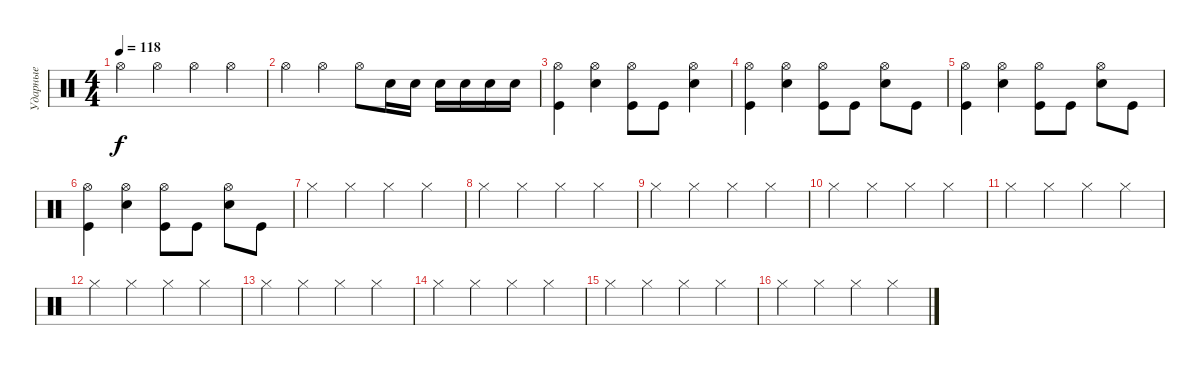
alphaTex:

\track ("Ударные" "Ударные") {instrument percussion}
\staff {score}
\articulation defaults
\ts (4 4)
\tempo 118
\clef neutral
\ks c "Hi-Hat (open)".4{dy f} "Hi-Hat (open)".4 "Hi-Hat (open)".4 "Hi-Hat (open)".4
|
"Hi-Hat (open)".4 "Hi-Hat (open)".4 "Hi-Hat (open)".8 "Snare (hit) 2".16 "Snare (hit) 2".16 "Snare (hit) 2".16 "Snare (hit) 2".16 "Snare (hit) 2".16 "Snare (hit) 2".16 |
("Hi-Hat (open)" "Kick (hit)").4 ("Hi-Hat (open)" "Snare (hit) 2").4 ("Hi-Hat (open)" "Kick (hit)").8 "Kick (hit)".8 ("Hi-Hat (open)" "Snare (hit) 2").4 |
("Hi-Hat (open)" "Kick (hit)").4 ("Hi-Hat (open)" "Snare (hit) 2").4 ("Hi-Hat (open)" "Kick (hit)").8 "Kick (hit)".8 ("Hi-Hat (open)" "Snare (hit) 2").8 "Kick (hit)".8 |
("Hi-Hat (open)" "Kick (hit)").4 ("Hi-Hat (open)" "Snare (hit) 2").4 ("Hi-Hat (open)" "Kick (hit)").8 "Kick (hit)".8 ("Hi-Hat (open)" "Snare (hit) 2").8 "Kick (hit)".8 |
("Hi-Hat (open)" "Kick (hit)").4 ("Hi-Hat (open)" "Snare (hit) 2").4 ("Hi-Hat (open)" "Kick (hit)").8 "Kick (hit)".8 ("Hi-Hat (open)" "Snare (hit) 2").8 "Kick (hit)".8 |
"Hi-Hat (closed)".4 "Hi-Hat (closed)".4 "Hi-Hat (closed)".4 "Hi-Hat (closed)".4 |
"Hi-Hat (closed)".4 "Hi-Hat (closed)".4 "Hi-Hat (closed)".4 "Hi-Hat (closed)".4 |
"Hi-Hat (closed)".4 "Hi-Hat (closed)".4 "Hi-Hat (closed)".4 "Hi-Hat (closed)".4 |
"Hi-Hat (closed)".4 "Hi-Hat (closed)".4 "Hi-Hat (closed)".4 "Hi-Hat (closed)".4 |
"Hi-Hat (closed)".4 "Hi-Hat (closed)".4 "Hi-Hat (closed)".4 "Hi-Hat (closed)".4 |
"Hi-Hat (closed)".4 "Hi-Hat (closed)".4 "Hi-Hat (closed)".4 "Hi-Hat (closed)".4 |
"Hi-Hat (closed)".4 "Hi-Hat (closed)".4 "Hi-Hat (closed)".4 "Hi-Hat (closed)".4 |
"Hi-Hat (closed)".4 "Hi-Hat (closed)".4 "Hi-Hat (closed)".4 "Hi-Hat (closed)".4 |
"Hi-Hat (closed)".4 "Hi-Hat (closed)".4 "Hi-Hat (closed)".4 "Hi-Hat (closed)".4 |
"Hi-Hat (closed)".4 "Hi-Hat (closed)".4 "Hi-Hat (closed)".4 "Hi-Hat (closed)".4
